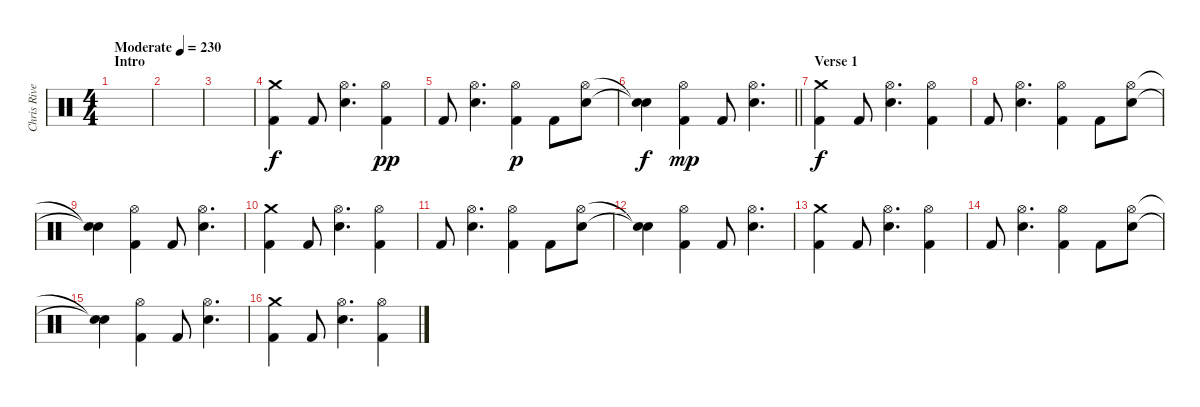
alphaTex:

\track ("Chris Rivers" "Chris Rive") {instrument percussion}
\staff {score}
\articulation defaults
\ts (4 4)
\section ("" "Intro")
\tempo (230 "Moderate")
\clef neutral
\ks c
|
|
|
("Crash medium (hit)" "Kick (hit) 2").4 "Kick (hit) 2".8 ("Hi-Hat (open)" "Electric Snare (hit)").4{d} ("Hi-Hat (open)" "Kick (hit) 2").4{dy pp} |
"Kick (hit) 2".8 ("Hi-Hat (open)" "Electric Snare (hit)").4{d} ("Hi-Hat (open)" "Kick (hit) 2").4{dy p} "Kick (hit) 2".8 ("Hi-Hat (open)" "Electric Snare (hit)").8 |
\barLineRight lightlight
("Snare (hit)"{t} "Snare (hit)"{t}).4{dy f} ("Hi-Hat (open)" "Kick (hit) 2").4{dy mp} "Kick (hit) 2".8 ("Hi-Hat (open)" "Electric Snare (hit)").4{d} |
\section ("" "Verse 1")
("Crash medium (hit)" "Kick (hit) 2").4{dy f} "Kick (hit) 2".8 ("Hi-Hat (open)" "Electric Snare (hit)").4{d} ("Hi-Hat (open)" "Kick (hit) 2").4 |
"Kick (hit) 2".8 ("Hi-Hat (open)" "Electric Snare (hit)").4{d} ("Hi-Hat (open)" "Kick (hit) 2").4 "Kick (hit) 2".8 ("Hi-Hat (open)" "Electric Snare (hit)").8 |
("Snare (hit)"{t} "Snare (hit)"{t}).4 ("Hi-Hat (open)" "Kick (hit) 2").4 "Kick (hit) 2".8 ("Hi-Hat (open)" "Electric Snare (hit)").4{d} |
("Crash medium (hit)" "Kick (hit) 2").4 "Kick (hit) 2".8 ("Hi-Hat (open)" "Electric Snare (hit)").4{d} ("Hi-Hat (open)" "Kick (hit) 2").4 |
"Kick (hit) 2".8 ("Hi-Hat (open)" "Electric Snare (hit)").4{d} ("Hi-Hat (open)" "Kick (hit) 2").4 "Kick (hit) 2".8 ("Hi-Hat (open)" "Electric Snare (hit)").8 |
("Snare (hit)"{t} "Snare (hit)"{t}).4 ("Hi-Hat (open)" "Kick (hit) 2").4 "Kick (hit) 2".8 ("Hi-Hat (open)" "Electric Snare (hit)").4{d} |
("Crash medium (hit)" "Kick (hit) 2").4 "Kick (hit) 2".8 ("Hi-Hat (open)" "Electric Snare (hit)").4{d} ("Hi-Hat (open)" "Kick (hit) 2").4 |
"Kick (hit) 2".8 ("Hi-Hat (open)" "Electric Snare (hit)").4{d} ("Hi-Hat (open)" "Kick (hit) 2").4 "Kick (hit) 2".8 ("Hi-Hat (open)" "Electric Snare (hit)").8 |
("Snare (hit)"{t} "Snare (hit)"{t}).4 ("Hi-Hat (open)" "Kick (hit) 2").4 "Kick (hit) 2".8 ("Hi-Hat (open)" "Electric Snare (hit)").4{d} |
("Crash medium (hit)" "Kick (hit) 2").4 "Kick (hit) 2".8 ("Hi-Hat (open)" "Electric Snare (hit)").4{d} ("Hi-Hat (open)" "Kick (hit) 2").4
